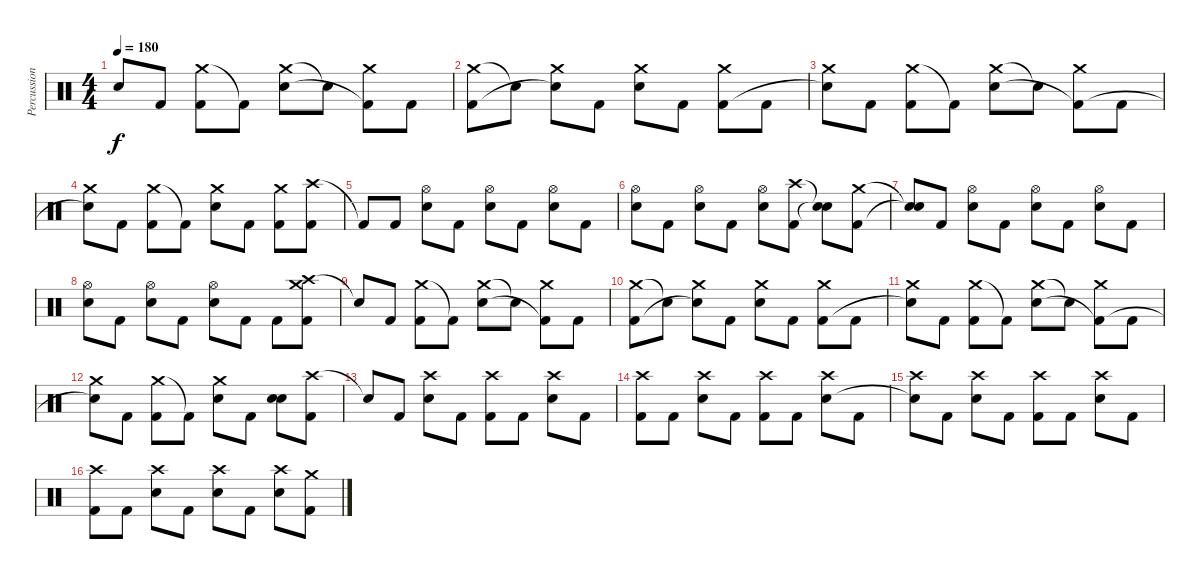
\track ("Percussion" "Percussion") {instrument percussion}
\staff {score}
\articulation defaults
\ts (4 4)
\tempo 180
\clef neutral
\ks c "Snare (hit)"{t}.8{dy f} "Kick (hit) 2".8
("Crash medium (hit)" "Kick (hit) 2").8 "Kick (hit) 2"{t}.8 ("Crash medium (hit)" "Snare (hit) 2").8 "Snare (hit)"{t}.8 ("Crash medium (hit)" "Kick (hit) 2"{t}).8 "Kick (hit) 2".8 |
("Crash medium (hit)" "Kick (hit) 2").8 "Snare (hit)"{t}.8 ("Crash medium (hit)" "Snare (hit)"{t}).8 "Kick (hit) 2".8 ("Crash medium (hit)" "Snare (hit) 2").8 "Kick (hit) 2".8 ("Crash medium (hit)" "Kick (hit) 2").8 "Kick (hit) 2".8 |
("Crash medium (hit)" "Snare (hit)"{t}).8 "Kick (hit) 2".8 ("Crash medium (hit)" "Kick (hit) 2").8 "Kick (hit) 2"{t}.8 ("Crash medium (hit)" "Snare (hit) 2").8 "Snare (hit)"{t}.8 ("Crash medium (hit)" "Kick (hit) 2"{t}).8 "Kick (hit) 2".8 |
("Crash medium (hit)" "Snare (hit)"{t}).8 "Kick (hit) 2".8 ("Crash medium (hit)" "Kick (hit) 2").8 "Kick (hit) 2"{t}.8 ("Crash medium (hit)" "Snare (hit) 2").8 "Kick (hit) 2".8 ("Crash medium (hit)" "Kick (hit) 2").8 ("Crash high (hit)" "Kick (hit) 2").8 |
"Kick (hit) 2"{t}.8 "Kick (hit) 2".8 ("Hi-Hat (open)" "Snare (hit) 2").8 "Kick (hit) 2".8 ("Hi-Hat (open)" "Snare (hit) 2").8 "Kick (hit) 2".8 ("Hi-Hat (open)" "Snare (hit) 2").8 "Kick (hit) 2".8 |
("Hi-Hat (open)" "Snare (hit) 2").8 "Kick (hit) 2".8 ("Hi-Hat (open)" "Snare (hit) 2").8 "Kick (hit) 2".8 ("Hi-Hat (open)" "Snare (hit) 2").8 ("Crash high (hit)" "Kick (hit) 2").8 ("Snare (hit)"{t} "Snare (hit)"{t}).8 ("Crash medium (hit)" "Kick (hit) 2").8 |
("Snare (hit)"{t} "Snare (hit)"{t}).8 "Kick (hit) 2".8 ("Hi-Hat (open)" "Snare (hit) 2").8 "Kick (hit) 2".8 ("Hi-Hat (open)" "Snare (hit) 2").8 "Kick (hit) 2".8 ("Hi-Hat (open)" "Snare (hit) 2").8 "Kick (hit) 2".8 |
("Hi-Hat (open)" "Snare (hit) 2").8 "Kick (hit) 2".8 ("Hi-Hat (open)" "Snare (hit) 2").8 "Kick (hit) 2".8 ("Hi-Hat (open)" "Snare (hit) 2").8 "Kick (hit) 2".8 "Kick (hit) 2".8 ("Crash high (hit)" "Crash medium (hit)" "Kick (hit) 2").8 |
"Snare (hit)"{t}.8 "Kick (hit) 2".8 ("Crash medium (hit)" "Kick (hit) 2").8 "Kick (hit) 2"{t}.8 ("Crash medium (hit)" "Snare (hit) 2").8 "Snare (hit)"{t}.8 ("Crash medium (hit)" "Kick (hit) 2"{t}).8 "Kick (hit) 2".8 |
("Crash medium (hit)" "Kick (hit) 2").8 "Snare (hit)"{t}.8 ("Crash medium (hit)" "Snare (hit)"{t}).8 "Kick (hit) 2".8 ("Crash medium (hit)" "Snare (hit) 2").8 "Kick (hit) 2".8 ("Crash medium (hit)" "Kick (hit) 2").8 "Kick (hit) 2".8 |
("Crash medium (hit)" "Snare (hit)"{t}).8 "Kick (hit) 2".8 ("Crash medium (hit)" "Kick (hit) 2").8 "Kick (hit) 2"{t}.8 ("Crash medium (hit)" "Snare (hit) 2").8 "Snare (hit)"{t}.8 ("Crash medium (hit)" "Kick (hit) 2"{t}).8 "Kick (hit) 2".8 |
("Crash medium (hit)" "Snare (hit)"{t}).8 "Kick (hit) 2".8 ("Crash medium (hit)" "Kick (hit) 2").8 "Kick (hit) 2"{t}.8 ("Crash medium (hit)" "Snare (hit) 2").8 "Kick (hit) 2".8 ("Snare (hit) 2" "Snare (hit) 2").8 ("Crash high (hit)" "Kick (hit) 2").8 |
"Snare (hit)"{t}.8 "Kick (hit) 2".8 ("Crash high (hit)" "Snare (hit) 2").8 "Kick (hit) 2".8 ("Crash high (hit)" "Kick (hit) 2").8 "Kick (hit) 2".8 ("Crash high (hit)" "Snare (hit) 2").8 "Kick (hit) 2".8 |
("Crash high (hit)" "Kick (hit) 2").8 "Kick (hit) 2".8 ("Crash high (hit)" "Snare (hit) 2").8 "Kick (hit) 2".8 ("Crash high (hit)" "Kick (hit) 2").8 "Kick (hit) 2".8 ("Crash high (hit)" "Snare (hit) 2").8 "Kick (hit) 2".8 |
("Crash high (hit)" "Snare (hit)"{t}).8 "Kick (hit) 2".8 ("Crash high (hit)" "Snare (hit) 2").8 "Kick (hit) 2".8 ("Crash high (hit)" "Kick (hit) 2").8 "Kick (hit) 2".8 ("Crash high (hit)" "Snare (hit) 2").8 "Kick (hit) 2".8 |
("Crash high (hit)" "Kick (hit) 2").8 "Kick (hit) 2".8 ("Crash high (hit)" "Snare (hit) 2").8 "Kick (hit) 2".8 ("Crash high (hit)" "Snare (hit) 2").8 "Kick (hit) 2".8 ("Crash high (hit)" "Snare (hit) 2").8 ("Crash medium (hit)" "Kick (hit) 2").8
